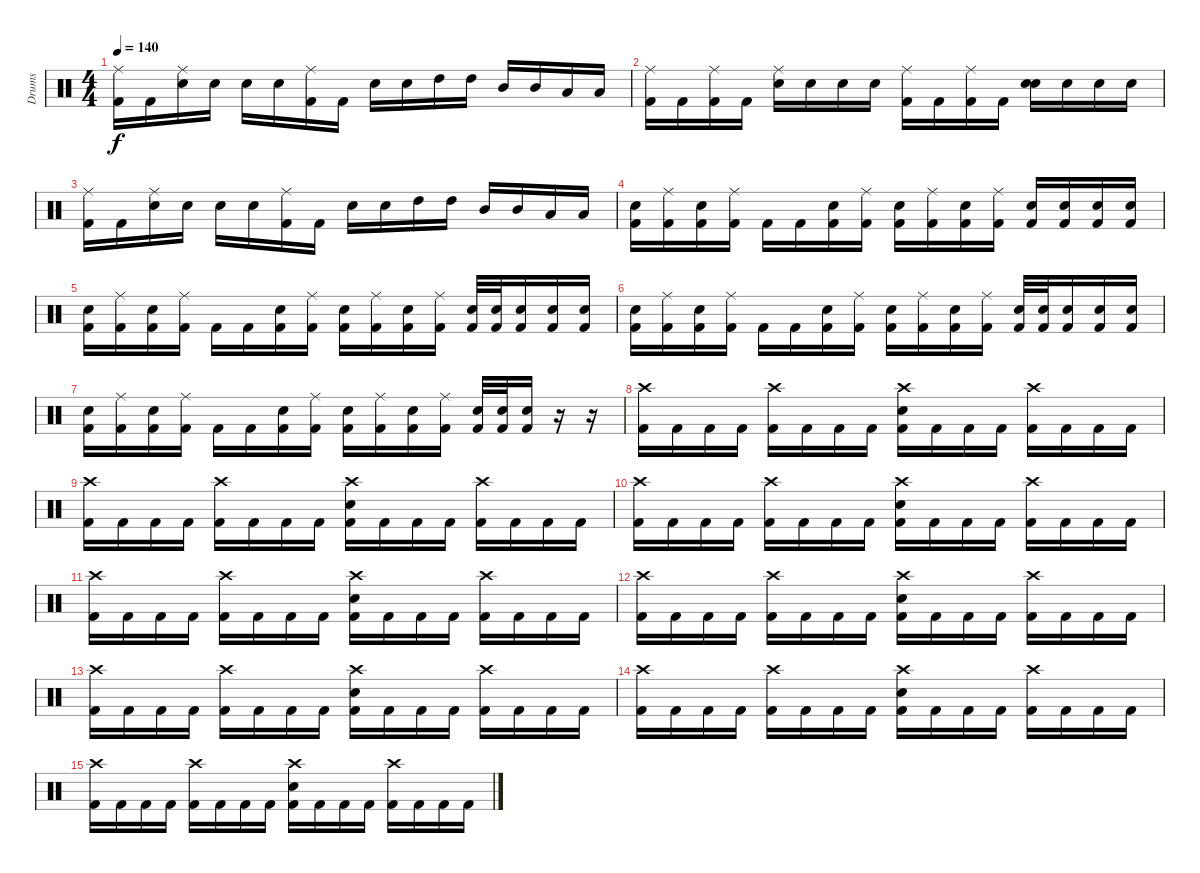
\track ("Drums" "Drums") {instrument percussion}
\staff {score}
\articulation defaults
\ts (4 4)
\tempo 140
\clef neutral
\ks c
("Ride (middle)" "Kick (hit) 2").16{dy f} "Kick (hit) 2".16 ("Ride (middle)" "Electric Snare (hit)").16 "Electric Snare (hit)".16 "Electric Snare (hit)".16 "Electric Snare (hit)".16 ("Ride (middle)" "Kick (hit) 2").16 "Kick (hit) 2".16 "Electric Snare (hit)".16 "Electric Snare (hit)".16 "High Tom (hit)".16 "High Tom (hit)".16 "Mid Tom (hit)".16 "Mid Tom (hit)".16 "Low Tom (hit)".16 "Low Tom (hit)".16 |
("Ride (middle)" "Kick (hit) 2").16 "Kick (hit) 2".16 ("Ride (middle)" "Kick (hit) 2").16 "Kick (hit) 2".16 ("Ride (middle)" "Electric Snare (hit)").16 "Electric Snare (hit)".16 "Electric Snare (hit)".16 "Electric Snare (hit)".16 ("Ride (middle)" "Kick (hit) 2").16 "Kick (hit) 2".16 ("Ride (middle)" "Kick (hit) 2").16 "Kick (hit) 2".16 ("Snare (hit)" "Electric Snare (hit)").16 "Electric Snare (hit)".16 "Electric Snare (hit)".16 "Electric Snare (hit)".16 |
("Ride (middle)" "Kick (hit) 2").16 "Kick (hit) 2".16 ("Ride (middle)" "Electric Snare (hit)").16 "Electric Snare (hit)".16 "Electric Snare (hit)".16 "Electric Snare (hit)".16 ("Ride (middle)" "Kick (hit) 2").16 "Kick (hit) 2".16 "Electric Snare (hit)".16 "Electric Snare (hit)".16 "High Tom (hit)".16 "High Tom (hit)".16 "Mid Tom (hit)".16 "Mid Tom (hit)".16 "Low Tom (hit)".16 "Low Tom (hit)".16 |
("Electric Snare (hit)" "Kick (hit) 2").16 ("Ride (middle)" "Kick (hit) 2").16 ("Electric Snare (hit)" "Kick (hit) 2").16 ("Ride (middle)" "Kick (hit) 2").16 "Kick (hit) 2".16 "Kick (hit) 2".16 ("Electric Snare (hit)" "Kick (hit) 2").16 ("Ride (middle)" "Kick (hit) 2").16 ("Electric Snare (hit)" "Kick (hit) 2").16 ("Ride (middle)" "Kick (hit) 2").16 ("Electric Snare (hit)" "Kick (hit) 2").16 ("Ride (middle)" "Kick (hit) 2").16 ("Electric Snare (hit)" "Kick (hit) 2").16 ("Electric Snare (hit)" "Kick (hit) 2").16 ("Electric Snare (hit)" "Kick (hit) 2").16 ("Electric Snare (hit)" "Kick (hit) 2").16 |
("Electric Snare (hit)" "Kick (hit) 2").16 ("Ride (middle)" "Kick (hit) 2").16 ("Electric Snare (hit)" "Kick (hit) 2").16 ("Ride (middle)" "Kick (hit) 2").16 "Kick (hit) 2".16 "Kick (hit) 2".16 ("Electric Snare (hit)" "Kick (hit) 2").16 ("Ride (middle)" "Kick (hit) 2").16 ("Electric Snare (hit)" "Kick (hit) 2").16 ("Ride (middle)" "Kick (hit) 2").16 ("Electric Snare (hit)" "Kick (hit) 2").16 ("Ride (middle)" "Kick (hit) 2").16 ("Electric Snare (hit)" "Kick (hit) 2").32 ("Electric Snare (hit)" "Kick (hit) 2").32 ("Electric Snare (hit)" "Kick (hit) 2").16 ("Electric Snare (hit)" "Kick (hit) 2").16 ("Electric Snare (hit)" "Kick (hit) 2").16 |
("Electric Snare (hit)" "Kick (hit) 2").16 ("Ride (middle)" "Kick (hit) 2").16 ("Electric Snare (hit)" "Kick (hit) 2").16 ("Ride (middle)" "Kick (hit) 2").16 "Kick (hit) 2".16 "Kick (hit) 2".16 ("Electric Snare (hit)" "Kick (hit) 2").16 ("Ride (middle)" "Kick (hit) 2").16 ("Electric Snare (hit)" "Kick (hit) 2").16 ("Ride (middle)" "Kick (hit) 2").16 ("Electric Snare (hit)" "Kick (hit) 2").16 ("Ride (middle)" "Kick (hit) 2").16 ("Electric Snare (hit)" "Kick (hit) 2").32 ("Electric Snare (hit)" "Kick (hit) 2").32 ("Electric Snare (hit)" "Kick (hit) 2").16 ("Electric Snare (hit)" "Kick (hit) 2").16 ("Electric Snare (hit)" "Kick (hit) 2").16 |
("Electric Snare (hit)" "Kick (hit) 2").16 ("Ride (middle)" "Kick (hit) 2").16 ("Electric Snare (hit)" "Kick (hit) 2").16 ("Ride (middle)" "Kick (hit) 2").16 "Kick (hit) 2".16 "Kick (hit) 2".16 ("Electric Snare (hit)" "Kick (hit) 2").16 ("Ride (middle)" "Kick (hit) 2").16 ("Electric Snare (hit)" "Kick (hit) 2").16 ("Ride (middle)" "Kick (hit) 2").16 ("Electric Snare (hit)" "Kick (hit) 2").16 ("Ride (middle)" "Kick (hit) 2").16 ("Electric Snare (hit)" "Kick (hit) 2").32 ("Electric Snare (hit)" "Kick (hit) 2").32 ("Electric Snare (hit)" "Kick (hit) 2").16 r.16 r.16 |
("Crash high (hit)" "Kick (hit) 2").16 "Kick (hit) 2".16 "Kick (hit) 2".16 "Kick (hit) 2".16 ("Crash high (hit)" "Kick (hit) 2").16 "Kick (hit) 2".16 "Kick (hit) 2".16 "Kick (hit) 2".16 ("Crash high (hit)" "Electric Snare (hit)" "Kick (hit) 2").16 "Kick (hit) 2".16 "Kick (hit) 2".16 "Kick (hit) 2".16 ("Crash high (hit)" "Kick (hit) 2").16 "Kick (hit) 2".16 "Kick (hit) 2".16 "Kick (hit) 2".16 |
("Crash high (hit)" "Kick (hit) 2").16 "Kick (hit) 2".16 "Kick (hit) 2".16 "Kick (hit) 2".16 ("Crash high (hit)" "Kick (hit) 2").16 "Kick (hit) 2".16 "Kick (hit) 2".16 "Kick (hit) 2".16 ("Crash high (hit)" "Electric Snare (hit)" "Kick (hit) 2").16 "Kick (hit) 2".16 "Kick (hit) 2".16 "Kick (hit) 2".16 ("Crash high (hit)" "Kick (hit) 2").16 "Kick (hit) 2".16 "Kick (hit) 2".16 "Kick (hit) 2".16 |
("Crash high (hit)" "Kick (hit) 2").16 "Kick (hit) 2".16 "Kick (hit) 2".16 "Kick (hit) 2".16 ("Crash high (hit)" "Kick (hit) 2").16 "Kick (hit) 2".16 "Kick (hit) 2".16 "Kick (hit) 2".16 ("Crash high (hit)" "Electric Snare (hit)" "Kick (hit) 2").16 "Kick (hit) 2".16 "Kick (hit) 2".16 "Kick (hit) 2".16 ("Crash high (hit)" "Kick (hit) 2").16 "Kick (hit) 2".16 "Kick (hit) 2".16 "Kick (hit) 2".16 |
("Crash high (hit)" "Kick (hit) 2").16 "Kick (hit) 2".16 "Kick (hit) 2".16 "Kick (hit) 2".16 ("Crash high (hit)" "Kick (hit) 2").16 "Kick (hit) 2".16 "Kick (hit) 2".16 "Kick (hit) 2".16 ("Crash high (hit)" "Electric Snare (hit)" "Kick (hit) 2").16 "Kick (hit) 2".16 "Kick (hit) 2".16 "Kick (hit) 2".16 ("Crash high (hit)" "Kick (hit) 2").16 "Kick (hit) 2".16 "Kick (hit) 2".16 "Kick (hit) 2".16 |
("Crash high (hit)" "Kick (hit) 2").16 "Kick (hit) 2".16 "Kick (hit) 2".16 "Kick (hit) 2".16 ("Crash high (hit)" "Kick (hit) 2").16 "Kick (hit) 2".16 "Kick (hit) 2".16 "Kick (hit) 2".16 ("Crash high (hit)" "Electric Snare (hit)" "Kick (hit) 2").16 "Kick (hit) 2".16 "Kick (hit) 2".16 "Kick (hit) 2".16 ("Crash high (hit)" "Kick (hit) 2").16 "Kick (hit) 2".16 "Kick (hit) 2".16 "Kick (hit) 2".16 |
("Crash high (hit)" "Kick (hit) 2").16 "Kick (hit) 2".16 "Kick (hit) 2".16 "Kick (hit) 2".16 ("Crash high (hit)" "Kick (hit) 2").16 "Kick (hit) 2".16 "Kick (hit) 2".16 "Kick (hit) 2".16 ("Crash high (hit)" "Electric Snare (hit)" "Kick (hit) 2").16 "Kick (hit) 2".16 "Kick (hit) 2".16 "Kick (hit) 2".16 ("Crash high (hit)" "Kick (hit) 2").16 "Kick (hit) 2".16 "Kick (hit) 2".16 "Kick (hit) 2".16 |
("Crash high (hit)" "Kick (hit) 2").16 "Kick (hit) 2".16 "Kick (hit) 2".16 "Kick (hit) 2".16 ("Crash high (hit)" "Kick (hit) 2").16 "Kick (hit) 2".16 "Kick (hit) 2".16 "Kick (hit) 2".16 ("Crash high (hit)" "Electric Snare (hit)" "Kick (hit) 2").16 "Kick (hit) 2".16 "Kick (hit) 2".16 "Kick (hit) 2".16 ("Crash high (hit)" "Kick (hit) 2").16 "Kick (hit) 2".16 "Kick (hit) 2".16 "Kick (hit) 2".16 |
("Crash high (hit)" "Kick (hit) 2").16 "Kick (hit) 2".16 "Kick (hit) 2".16 "Kick (hit) 2".16 ("Crash high (hit)" "Kick (hit) 2").16 "Kick (hit) 2".16 "Kick (hit) 2".16 "Kick (hit) 2".16 ("Crash high (hit)" "Electric Snare (hit)" "Kick (hit) 2").16 "Kick (hit) 2".16 "Kick (hit) 2".16 "Kick (hit) 2".16 ("Crash high (hit)" "Kick (hit) 2").16 "Kick (hit) 2".16 "Kick (hit) 2".16 "Kick (hit) 2".16
